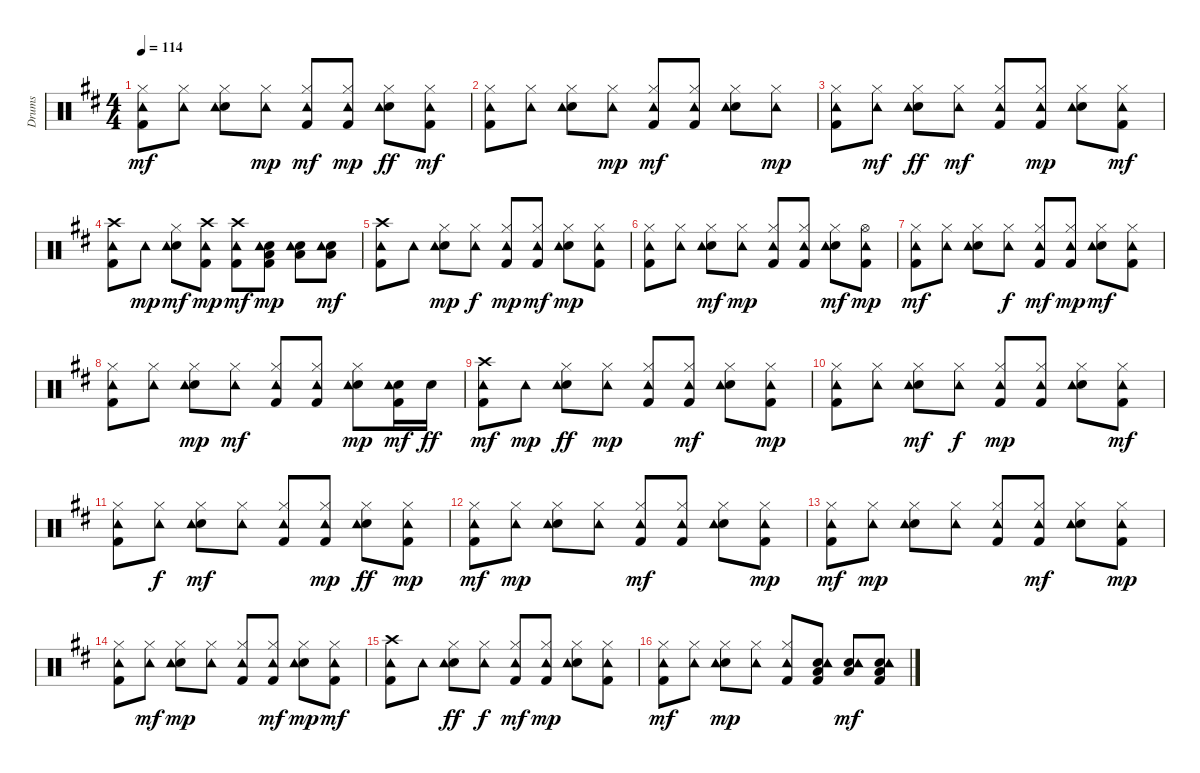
\track ("Drums" "Drums") {instrument percussion}
\staff {score}
\articulation defaults
\ts (4 4)
\tempo 114
\clef neutral
\ks d
("Kick (hit) 2" "Hi-Hat (closed)" "Tambourine (hit)").8{dy mf} ("Hi-Hat (closed)" "Tambourine (hit)").8 ("Snare (hit) 2" "Hi-Hat (closed)" "Tambourine (hit)").8 ("Hi-Hat (closed)" "Tambourine (hit)").8{dy mp} ("Kick (hit) 2" "Hi-Hat (closed)" "Tambourine (hit)").8{dy mf} ("Kick (hit) 2" "Hi-Hat (closed)" "Tambourine (hit)").8{dy mp} ("Snare (hit) 2" "Hi-Hat (closed)" "Tambourine (hit)").8{dy ff} ("Kick (hit) 2" "Hi-Hat (closed)" "Tambourine (hit)").8{dy mf} |
("Kick (hit) 2" "Hi-Hat (closed)" "Tambourine (hit)").8 ("Hi-Hat (closed)" "Tambourine (hit)").8 ("Snare (hit) 2" "Hi-Hat (closed)" "Tambourine (hit)").8 ("Hi-Hat (closed)" "Tambourine (hit)").8{dy mp} ("Kick (hit) 2" "Hi-Hat (closed)" "Tambourine (hit)").8{dy mf} ("Kick (hit) 2" "Hi-Hat (closed)" "Tambourine (hit)").8 ("Snare (hit) 2" "Hi-Hat (closed)" "Tambourine (hit)").8 ("Hi-Hat (closed)" "Tambourine (hit)").8{dy mp} |
("Kick (hit) 2" "Hi-Hat (closed)" "Tambourine (hit)").8 ("Hi-Hat (closed)" "Tambourine (hit)").8{dy mf} ("Snare (hit) 2" "Hi-Hat (closed)" "Tambourine (hit)").8{dy ff} ("Hi-Hat (closed)" "Tambourine (hit)").8{dy mf} ("Kick (hit) 2" "Hi-Hat (closed)" "Tambourine (hit)").8 ("Kick (hit) 2" "Hi-Hat (closed)" "Tambourine (hit)").8{dy mp} ("Snare (hit) 2" "Hi-Hat (closed)" "Tambourine (hit)").8 ("Kick (hit) 2" "Hi-Hat (closed)" "Tambourine (hit)").8{dy mf} |
("Kick (hit) 2" "Crash high (hit)" "Tambourine (hit)").8 "Tambourine (hit)".8{dy mp} ("Snare (hit) 2" "Hi-Hat (closed)" "Tambourine (hit)").8{dy mf} ("Kick (hit) 2" "Crash high (hit)" "Tambourine (hit)").8{dy mp} ("Kick (hit) 2" "Crash high (hit)" "Tambourine (hit)").8{dy mf} ("Kick (hit) 2" "Snare (hit) 2" "Low Floor Tom (hit)" "Tambourine (hit)").8{dy mp} ("Snare (hit) 2" "Low Floor Tom (hit)" "Tambourine (hit)").8 ("Snare (hit) 2" "Low Floor Tom (hit)" "Tambourine (hit)").8{dy mf} |
("Kick (hit) 2" "Crash high (hit)" "Tambourine (hit)").8 "Tambourine (hit)".8 ("Snare (hit) 2" "Hi-Hat (closed)" "Tambourine (hit)").8{dy mp} ("Hi-Hat (closed)" "Tambourine (hit)").8{dy f} ("Kick (hit) 2" "Hi-Hat (closed)" "Tambourine (hit)").8{dy mp} ("Kick (hit) 2" "Hi-Hat (closed)" "Tambourine (hit)").8{dy mf} ("Snare (hit) 2" "Hi-Hat (closed)" "Tambourine (hit)").8{dy mp} ("Kick (hit) 2" "Hi-Hat (closed)" "Tambourine (hit)").8 |
("Kick (hit) 2" "Hi-Hat (closed)" "Tambourine (hit)").8 ("Hi-Hat (closed)" "Tambourine (hit)").8 ("Snare (hit) 2" "Hi-Hat (closed)" "Tambourine (hit)").8{dy mf} ("Hi-Hat (closed)" "Tambourine (hit)").8{dy mp} ("Kick (hit) 2" "Hi-Hat (closed)" "Tambourine (hit)").8 ("Kick (hit) 2" "Hi-Hat (closed)" "Tambourine (hit)").8 ("Snare (hit) 2" "Hi-Hat (closed)" "Tambourine (hit)").8{dy mf} ("Kick (hit) 2" "Hi-Hat (open)" "Tambourine (hit)").8{dy mp} |
("Kick (hit) 2" "Hi-Hat (closed)" "Tambourine (hit)").8{dy mf} ("Hi-Hat (closed)" "Tambourine (hit)").8 ("Snare (hit) 2" "Hi-Hat (closed)" "Tambourine (hit)").8 ("Hi-Hat (closed)" "Tambourine (hit)").8{dy f} ("Kick (hit) 2" "Hi-Hat (closed)" "Tambourine (hit)").8{dy mf} ("Kick (hit) 2" "Hi-Hat (closed)" "Tambourine (hit)").8{dy mp} ("Snare (hit) 2" "Hi-Hat (closed)" "Tambourine (hit)").8{dy mf} ("Kick (hit) 2" "Hi-Hat (closed)" "Tambourine (hit)").8 |
("Kick (hit) 2" "Hi-Hat (closed)" "Tambourine (hit)").8 ("Hi-Hat (closed)" "Tambourine (hit)").8 ("Snare (hit) 2" "Hi-Hat (closed)" "Tambourine (hit)").8{dy mp} ("Hi-Hat (closed)" "Tambourine (hit)").8{dy mf} ("Kick (hit) 2" "Hi-Hat (closed)" "Tambourine (hit)").8 ("Kick (hit) 2" "Hi-Hat (closed)" "Tambourine (hit)").8 ("Snare (hit) 2" "Hi-Hat (closed)" "Tambourine (hit)").8{dy mp} ("Kick (hit) 2" "Snare (hit) 2" "Tambourine (hit)").16{dy mf} "Snare (hit) 2".16{dy ff} |
("Kick (hit) 2" "Crash high (hit)" "Tambourine (hit)").8{dy mf} "Tambourine (hit)".8{dy mp} ("Snare (hit) 2" "Hi-Hat (closed)" "Tambourine (hit)").8{dy ff} ("Hi-Hat (closed)" "Tambourine (hit)").8{dy mp} ("Kick (hit) 2" "Hi-Hat (closed)" "Tambourine (hit)").8 ("Kick (hit) 2" "Hi-Hat (closed)" "Tambourine (hit)").8{dy mf} ("Snare (hit) 2" "Hi-Hat (closed)" "Tambourine (hit)").8 ("Kick (hit) 2" "Hi-Hat (closed)" "Tambourine (hit)").8{dy mp} |
("Kick (hit) 2" "Hi-Hat (closed)" "Tambourine (hit)").8 ("Hi-Hat (closed)" "Tambourine (hit)").8 ("Snare (hit) 2" "Hi-Hat (closed)" "Tambourine (hit)").8{dy mf} ("Hi-Hat (closed)" "Tambourine (hit)").8{dy f} ("Kick (hit) 2" "Hi-Hat (closed)" "Tambourine (hit)").8{dy mp} ("Kick (hit) 2" "Hi-Hat (closed)" "Tambourine (hit)").8 ("Snare (hit) 2" "Hi-Hat (closed)" "Tambourine (hit)").8 ("Kick (hit) 2" "Hi-Hat (closed)" "Tambourine (hit)").8{dy mf} |
("Kick (hit) 2" "Hi-Hat (closed)" "Tambourine (hit)").8 ("Hi-Hat (closed)" "Tambourine (hit)").8{dy f} ("Snare (hit) 2" "Hi-Hat (closed)" "Tambourine (hit)").8{dy mf} ("Hi-Hat (closed)" "Tambourine (hit)").8 ("Kick (hit) 2" "Hi-Hat (closed)" "Tambourine (hit)").8 ("Kick (hit) 2" "Hi-Hat (closed)" "Tambourine (hit)").8{dy mp} ("Snare (hit) 2" "Hi-Hat (closed)" "Tambourine (hit)").8{dy ff} ("Kick (hit) 2" "Hi-Hat (closed)" "Tambourine (hit)").8{dy mp} |
("Kick (hit) 2" "Hi-Hat (closed)" "Tambourine (hit)").8{dy mf} ("Hi-Hat (closed)" "Tambourine (hit)").8{dy mp} ("Snare (hit) 2" "Hi-Hat (closed)" "Tambourine (hit)").8 ("Hi-Hat (closed)" "Tambourine (hit)").8 ("Kick (hit) 2" "Hi-Hat (closed)" "Tambourine (hit)").8{dy mf} ("Kick (hit) 2" "Hi-Hat (closed)" "Tambourine (hit)").8 ("Snare (hit) 2" "Hi-Hat (closed)" "Tambourine (hit)").8 ("Kick (hit) 2" "Hi-Hat (closed)" "Tambourine (hit)").8{dy mp} |
("Kick (hit) 2" "Hi-Hat (closed)" "Tambourine (hit)").8{dy mf} ("Hi-Hat (closed)" "Tambourine (hit)").8{dy mp} ("Snare (hit) 2" "Hi-Hat (closed)" "Tambourine (hit)").8 ("Hi-Hat (closed)" "Tambourine (hit)").8 ("Kick (hit) 2" "Hi-Hat (closed)" "Tambourine (hit)").8 ("Kick (hit) 2" "Hi-Hat (closed)" "Tambourine (hit)").8{dy mf} ("Snare (hit) 2" "Hi-Hat (closed)" "Tambourine (hit)").8 ("Kick (hit) 2" "Hi-Hat (closed)" "Tambourine (hit)").8{dy mp} |
("Kick (hit) 2" "Hi-Hat (closed)" "Tambourine (hit)").8 ("Hi-Hat (closed)" "Tambourine (hit)").8{dy mf} ("Snare (hit) 2" "Hi-Hat (closed)" "Tambourine (hit)").8{dy mp} ("Hi-Hat (closed)" "Tambourine (hit)").8 ("Kick (hit) 2" "Hi-Hat (closed)" "Tambourine (hit)").8 ("Kick (hit) 2" "Hi-Hat (closed)" "Tambourine (hit)").8{dy mf} ("Snare (hit) 2" "Hi-Hat (closed)" "Tambourine (hit)").8{dy mp} ("Kick (hit) 2" "Hi-Hat (closed)" "Tambourine (hit)").8{dy mf} |
("Kick (hit) 2" "Crash high (hit)" "Tambourine (hit)").8 "Tambourine (hit)".8 ("Snare (hit) 2" "Hi-Hat (closed)" "Tambourine (hit)").8{dy ff} ("Hi-Hat (closed)" "Tambourine (hit)").8{dy f} ("Kick (hit) 2" "Hi-Hat (closed)" "Tambourine (hit)").8{dy mf} ("Kick (hit) 2" "Hi-Hat (closed)" "Tambourine (hit)").8{dy mp} ("Snare (hit) 2" "Hi-Hat (closed)" "Tambourine (hit)").8 ("Kick (hit) 2" "Hi-Hat (closed)" "Tambourine (hit)").8 |
("Kick (hit) 2" "Hi-Hat (closed)" "Tambourine (hit)").8{dy mf} ("Hi-Hat (closed)" "Tambourine (hit)").8 ("Snare (hit) 2" "Hi-Hat (closed)" "Tambourine (hit)").8{dy mp} ("Hi-Hat (closed)" "Tambourine (hit)").8 ("Kick (hit) 2" "Hi-Hat (closed)" "Tambourine (hit)").8 ("Kick (hit) 2" "Snare (hit) 2" "Low Floor Tom (hit)" "Tambourine (hit)").8 ("Snare (hit) 2" "Low Floor Tom (hit)" "Tambourine (hit)").8{dy mf} ("Kick (hit) 2" "Snare (hit) 2" "Low Floor Tom (hit)" "Tambourine (hit)").8
